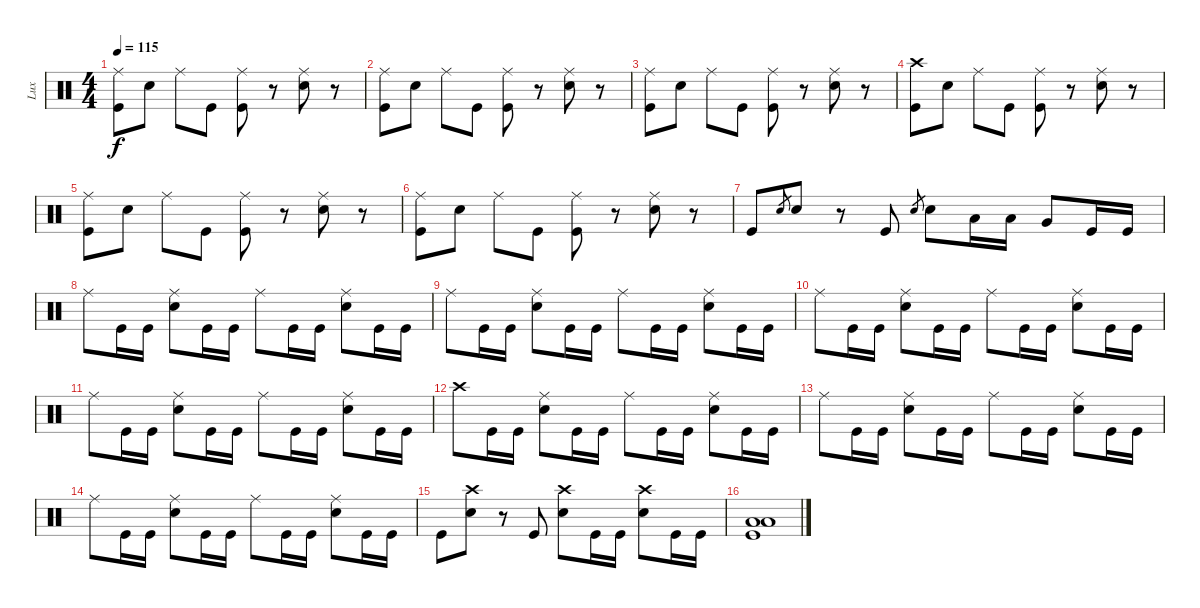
\track ("Lux" "Lux") {mute instrument percussion}
\staff {score}
\articulation defaults
\ts (4 4)
\tempo 115
\clef neutral
\ks c
("Ride (middle)" "Kick (hit)").8{dy f} "Snare (hit) 2".8 "Ride (middle)".8 "Kick (hit)".8 ("Ride (middle)" "Kick (hit)").8 r.8 ("Ride (middle)" "Snare (hit) 2").8 r.8 |
("Ride (middle)" "Kick (hit)").8 "Snare (hit) 2".8 "Ride (middle)".8 "Kick (hit)".8 ("Ride (middle)" "Kick (hit)").8 r.8 ("Ride (middle)" "Snare (hit) 2").8 r.8 |
("Ride (middle)" "Kick (hit)").8 "Snare (hit) 2".8 "Ride (middle)".8 "Kick (hit)".8 ("Ride (middle)" "Kick (hit)").8 r.8 ("Ride (middle)" "Snare (hit) 2").8 r.8 |
("Crash high (hit)" "Kick (hit)").8 "Snare (hit) 2".8 "Ride (middle)".8 "Kick (hit)".8 ("Ride (middle)" "Kick (hit)").8 r.8 ("Ride (middle)" "Snare (hit) 2").8 r.8 |
("Ride (middle)" "Kick (hit)").8 "Snare (hit) 2".8 "Ride (middle)".8 "Kick (hit)".8 ("Ride (middle)" "Kick (hit)").8 r.8 ("Ride (middle)" "Snare (hit) 2").8 r.8 |
("Ride (middle)" "Kick (hit)").8 "Snare (hit) 2".8 "Ride (middle)".8 "Kick (hit)".8 ("Ride (middle)" "Kick (hit)").8 r.8 ("Ride (middle)" "Snare (hit) 2").8 r.8 |
"Kick (hit)".8 "Snare (hit) 2".8{gr} "Snare (hit) 2".8 r.8 "Kick (hit)".8 "Snare (hit) 2".8{gr} "Snare (hit) 2".8 "Low Tom (hit)".16 "Low Tom (hit)".16 "Very Low Tom (hit)".8 "Kick (hit)".16 "Kick (hit)".16 |
"Ride (middle)".8 "Kick (hit)".16 "Kick (hit)".16 ("Ride (middle)" "Snare (hit) 2").8 "Kick (hit)".16 "Kick (hit)".16 "Ride (middle)".8 "Kick (hit)".16 "Kick (hit)".16 ("Ride (middle)" "Snare (hit) 2").8 "Kick (hit)".16 "Kick (hit)".16 |
"Ride (middle)".8 "Kick (hit)".16 "Kick (hit)".16 ("Ride (middle)" "Snare (hit) 2").8 "Kick (hit)".16 "Kick (hit)".16 "Ride (middle)".8 "Kick (hit)".16 "Kick (hit)".16 ("Ride (middle)" "Snare (hit) 2").8 "Kick (hit)".16 "Kick (hit)".16 |
"Ride (middle)".8 "Kick (hit)".16 "Kick (hit)".16 ("Ride (middle)" "Snare (hit) 2").8 "Kick (hit)".16 "Kick (hit)".16 "Ride (middle)".8 "Kick (hit)".16 "Kick (hit)".16 ("Ride (middle)" "Snare (hit) 2").8 "Kick (hit)".16 "Kick (hit)".16 |
"Ride (middle)".8 "Kick (hit)".16 "Kick (hit)".16 ("Ride (middle)" "Snare (hit) 2").8 "Kick (hit)".16 "Kick (hit)".16 "Ride (middle)".8 "Kick (hit)".16 "Kick (hit)".16 ("Ride (middle)" "Snare (hit) 2").8 "Kick (hit)".16 "Kick (hit)".16 |
"Crash high (hit)".8 "Kick (hit)".16 "Kick (hit)".16 ("Ride (middle)" "Snare (hit) 2").8 "Kick (hit)".16 "Kick (hit)".16 "Ride (middle)".8 "Kick (hit)".16 "Kick (hit)".16 ("Ride (middle)" "Snare (hit) 2").8 "Kick (hit)".16 "Kick (hit)".16 |
"Ride (middle)".8 "Kick (hit)".16 "Kick (hit)".16 ("Ride (middle)" "Snare (hit) 2").8 "Kick (hit)".16 "Kick (hit)".16 "Ride (middle)".8 "Kick (hit)".16 "Kick (hit)".16 ("Ride (middle)" "Snare (hit) 2").8 "Kick (hit)".16 "Kick (hit)".16 |
"Ride (middle)".8 "Kick (hit)".16 "Kick (hit)".16 ("Ride (middle)" "Snare (hit) 2").8 "Kick (hit)".16 "Kick (hit)".16 "Ride (middle)".8 "Kick (hit)".16 "Kick (hit)".16 ("Ride (middle)" "Snare (hit) 2").8 "Kick (hit)".16 "Kick (hit)".16 |
"Kick (hit)".8 ("Crash high (hit)" "Snare (hit) 2").8 r.8 "Kick (hit)".8 ("Crash high (hit)" "Snare (hit) 2").8 "Kick (hit)".16 "Kick (hit)".16 ("Crash high (hit)" "Snare (hit) 2").8 "Kick (hit)".16 "Kick (hit)".16 |
("Low Floor Tom (hit)" "Low Floor Tom (hit)" "Kick (hit)").1
